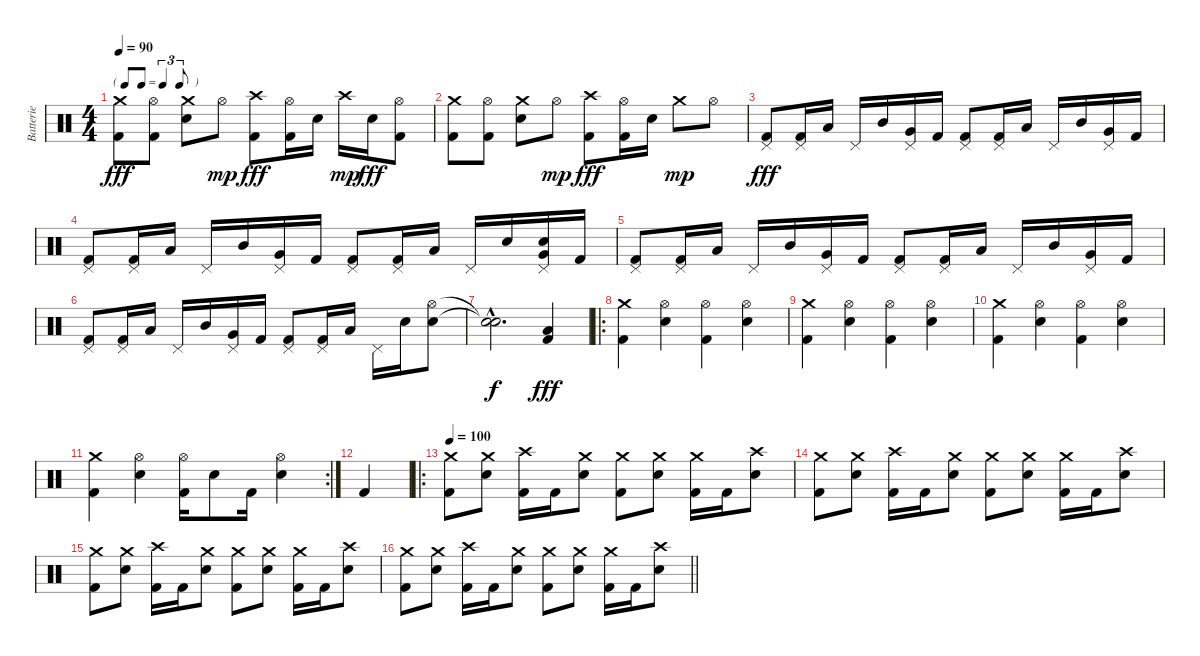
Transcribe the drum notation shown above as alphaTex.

\track ("Batterie" "Batterie") {instrument percussion}
\staff {score}
\articulation defaults
\ts (4 4)
\tf triplet8th
\tempo 90
\clef neutral
\ks c
("Crash medium (hit)" "Kick (hit) 2").8{dy fff} ("Hi-Hat (open)" "Kick (hit) 2").8 ("Crash medium (hit)" "Electric Snare (hit)").8 "Hi-Hat (open)".8{dy mp} ("Crash high (hit)" "Kick (hit) 2").8{dy fff} ("Hi-Hat (open)" "Kick (hit) 2").16 "Electric Snare (hit)".16 "Crash high (hit)".16{dy mp} "Electric Snare (hit)".16{dy fff} ("Hi-Hat (open)" "Kick (hit) 2").8 |
("Crash medium (hit)" "Kick (hit) 2").8 ("Hi-Hat (open)" "Kick (hit) 2").8 ("Crash medium (hit)" "Electric Snare (hit)").8 "Hi-Hat (open)".8{dy mp} ("Crash high (hit)" "Kick (hit) 2").8{dy fff} ("Hi-Hat (open)" "Kick (hit) 2").16 "Electric Snare (hit)".16 "Crash medium (hit)".8{dy mp} "Hi-Hat (open)".8 |
("Pedal Hi-Hat (hit)" "Kick (hit) 2").8{dy fff} ("Pedal Hi-Hat (hit)" "Kick (hit) 2").16 "Low Tom (hit)".16 "Pedal Hi-Hat (hit)".16 "Mid Tom (hit)".16 ("Pedal Hi-Hat (hit)" "Very Low Tom (hit)").16 "Kick (hit) 2".16 ("Pedal Hi-Hat (hit)" "Kick (hit) 2").8 ("Pedal Hi-Hat (hit)" "Kick (hit) 2").16 "Low Tom (hit)".16 "Pedal Hi-Hat (hit)".16 "Mid Tom (hit)".16 ("Pedal Hi-Hat (hit)" "Very Low Tom (hit)").16 "Kick (hit) 2".16 |
("Pedal Hi-Hat (hit)" "Kick (hit) 2").8 ("Pedal Hi-Hat (hit)" "Kick (hit) 2").16 "Low Tom (hit)".16 "Pedal Hi-Hat (hit)".16 "Mid Tom (hit)".16 ("Pedal Hi-Hat (hit)" "Very Low Tom (hit)").16 "Kick (hit) 2".16 ("Pedal Hi-Hat (hit)" "Kick (hit) 2").8 ("Pedal Hi-Hat (hit)" "Kick (hit) 2").16 "Low Tom (hit)".16 "Pedal Hi-Hat (hit)".16 "Electric Snare (hit)".16 ("Pedal Hi-Hat (hit)" "Electric Snare (hit)" "Very Low Tom (hit)").16 "Kick (hit) 2".16 |
("Pedal Hi-Hat (hit)" "Kick (hit) 2").8 ("Pedal Hi-Hat (hit)" "Kick (hit) 2").16 "Low Tom (hit)".16 "Pedal Hi-Hat (hit)".16 "Mid Tom (hit)".16 ("Pedal Hi-Hat (hit)" "Very Low Tom (hit)").16 "Kick (hit) 2".16 ("Pedal Hi-Hat (hit)" "Kick (hit) 2").8 ("Pedal Hi-Hat (hit)" "Kick (hit) 2").16 "Low Tom (hit)".16 "Pedal Hi-Hat (hit)".16 "Mid Tom (hit)".16 ("Pedal Hi-Hat (hit)" "Very Low Tom (hit)").16 "Kick (hit) 2".16 |
("Pedal Hi-Hat (hit)" "Kick (hit) 2").8 ("Pedal Hi-Hat (hit)" "Kick (hit) 2").16 "Low Tom (hit)".16 "Pedal Hi-Hat (hit)".16 "Mid Tom (hit)".16 ("Pedal Hi-Hat (hit)" "Very Low Tom (hit)").16 "Kick (hit) 2".16 ("Pedal Hi-Hat (hit)" "Kick (hit) 2").8 ("Pedal Hi-Hat (hit)" "Kick (hit) 2").16 "Low Tom (hit)".16 "Pedal Hi-Hat (hit)".16 "Electric Snare (hit)".16 ("Hi-Hat (open)" "Electric Snare (hit)").8 |
("Snare (hit)"{hac t} "Snare (hit)"{hac t}).2{d dy f} ("Low Tom (hit)" "Kick (hit) 2").4{dy fff} |
\ro
("Crash medium (hit)" "Kick (hit) 2").4 ("Hi-Hat (open)" "Electric Snare (hit)").4 ("Hi-Hat (open)" "Kick (hit) 2").4 ("Hi-Hat (open)" "Electric Snare (hit)").4 |
("Crash medium (hit)" "Kick (hit) 2").4 ("Hi-Hat (open)" "Electric Snare (hit)").4 ("Hi-Hat (open)" "Kick (hit) 2").4 ("Hi-Hat (open)" "Electric Snare (hit)").4 |
("Crash medium (hit)" "Kick (hit) 2").4 ("Hi-Hat (open)" "Electric Snare (hit)").4 ("Hi-Hat (open)" "Kick (hit) 2").4 ("Hi-Hat (open)" "Electric Snare (hit)").4 |
\rc 2
("Crash medium (hit)" "Kick (hit) 2").4 ("Hi-Hat (open)" "Electric Snare (hit)").4 ("Hi-Hat (open)" "Kick (hit) 2").16 "Electric Snare (hit)".8 "Kick (hit) 2".16 ("Hi-Hat (open)" "Electric Snare (hit)").4 |
"Kick (hit) 2".4 |
\ro
\tempo 100
("Crash medium (hit)" "Kick (hit) 2").8 ("Crash medium (hit)" "Electric Snare (hit)").8 ("Crash high (hit)" "Kick (hit) 2").16 "Kick (hit) 2".16 ("Crash medium (hit)" "Electric Snare (hit)").8 ("Crash medium (hit)" "Kick (hit) 2").8 ("Crash medium (hit)" "Electric Snare (hit)").8 ("Crash medium (hit)" "Kick (hit) 2").16 "Kick (hit) 2".16 ("Crash high (hit)" "Electric Snare (hit)").8 |
("Crash medium (hit)" "Kick (hit) 2").8 ("Crash medium (hit)" "Electric Snare (hit)").8 ("Crash high (hit)" "Kick (hit) 2").16 "Kick (hit) 2".16 ("Crash medium (hit)" "Electric Snare (hit)").8 ("Crash medium (hit)" "Kick (hit) 2").8 ("Crash medium (hit)" "Electric Snare (hit)").8 ("Crash medium (hit)" "Kick (hit) 2").16 "Kick (hit) 2".16 ("Crash high (hit)" "Electric Snare (hit)").8 |
("Crash medium (hit)" "Kick (hit) 2").8 ("Crash medium (hit)" "Electric Snare (hit)").8 ("Crash high (hit)" "Kick (hit) 2").16 "Kick (hit) 2".16 ("Crash medium (hit)" "Electric Snare (hit)").8 ("Crash medium (hit)" "Kick (hit) 2").8 ("Crash medium (hit)" "Electric Snare (hit)").8 ("Crash medium (hit)" "Kick (hit) 2").16 "Kick (hit) 2".16 ("Crash high (hit)" "Electric Snare (hit)").8 |
\barLineRight lightlight
("Crash medium (hit)" "Kick (hit) 2").8 ("Crash medium (hit)" "Electric Snare (hit)").8 ("Crash high (hit)" "Kick (hit) 2").16 "Kick (hit) 2".16 ("Crash medium (hit)" "Electric Snare (hit)").8 ("Crash medium (hit)" "Kick (hit) 2").8 ("Crash medium (hit)" "Electric Snare (hit)").8 ("Crash medium (hit)" "Kick (hit) 2").16 "Kick (hit) 2".16 ("Crash high (hit)" "Electric Snare (hit)").8
